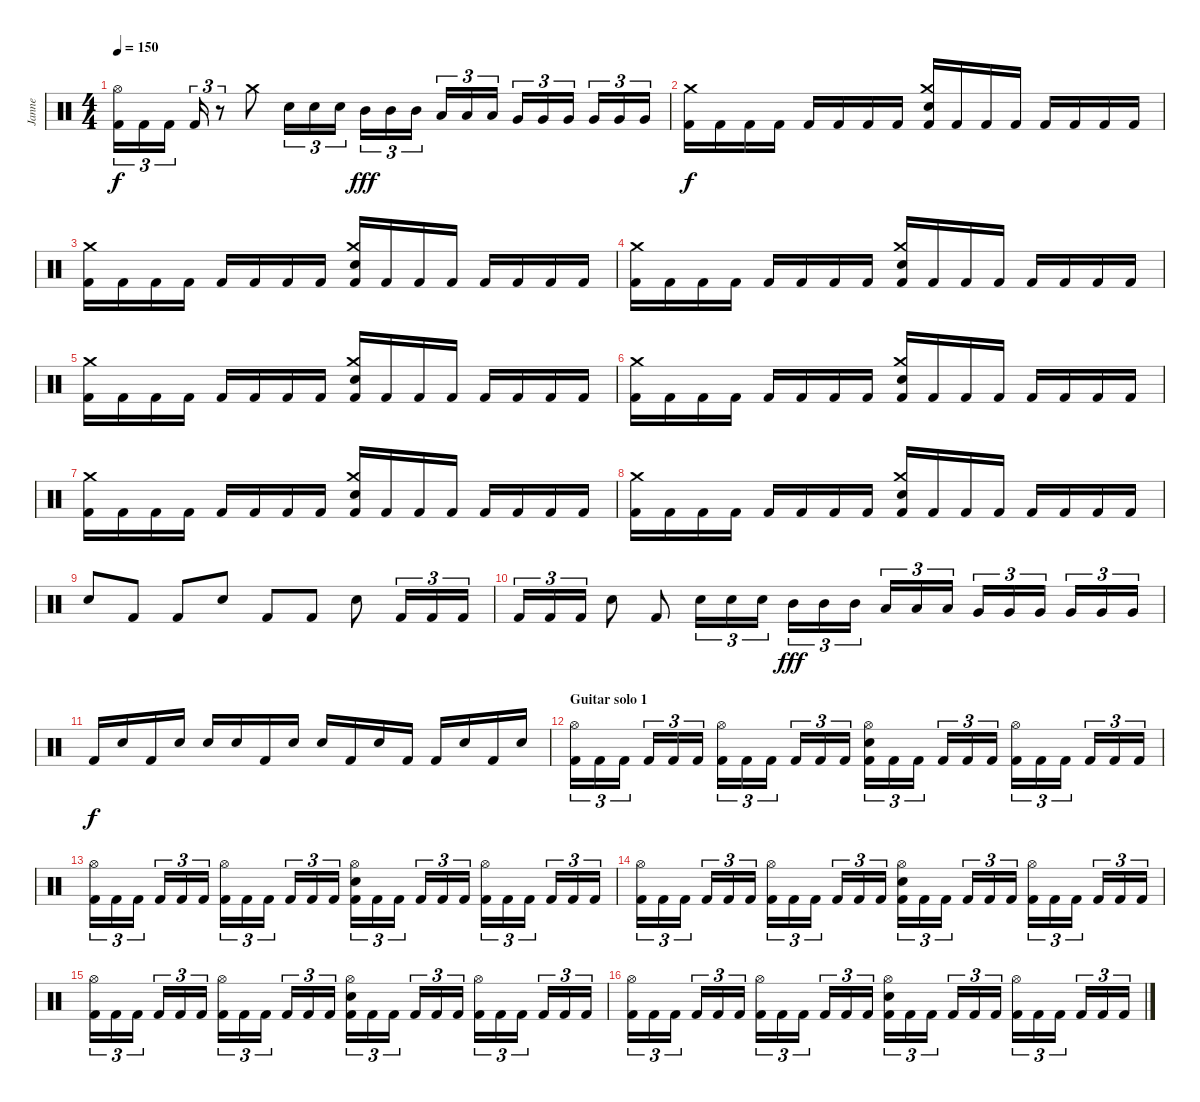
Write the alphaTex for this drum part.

\track ("Janne" "Janne") {instrument percussion}
\staff {score}
\articulation defaults
\ts (4 4)
\tempo 150
\clef neutral
\ks c
("Hi-Hat (open)" "Kick (hit) 2").16{tu (3 2) dy f} "Kick (hit) 2".16{tu (3 2)} "Kick (hit) 2".16{tu (3 2)} "Kick (hit) 2".16{tu (3 2)} r.8{tu (3 2)} "Crash medium (hit)".8 "Electric Snare (hit)".16{tu (3 2)} "Electric Snare (hit)".16{tu (3 2)} "Electric Snare (hit)".16{tu (3 2)} "Mid Tom (hit)".16{tu (3 2) dy fff} "Mid Tom (hit)".16{tu (3 2)} "Mid Tom (hit)".16{tu (3 2)} "Low Tom (hit)".16{tu (3 2)} "Low Tom (hit)".16{tu (3 2)} "Low Tom (hit)".16{tu (3 2)} "Very Low Tom (hit)".16{tu (3 2)} "Very Low Tom (hit)".16{tu (3 2)} "Very Low Tom (hit)".16{tu (3 2)} "Very Low Tom (hit)".16{tu (3 2)} "Very Low Tom (hit)".16{tu (3 2)} "Very Low Tom (hit)".16{tu (3 2)} |
("Crash medium (hit)" "Kick (hit) 2").16{dy f} "Kick (hit) 2".16 "Kick (hit) 2".16 "Kick (hit) 2".16 "Kick (hit) 2".16 "Kick (hit) 2".16 "Kick (hit) 2".16 "Kick (hit) 2".16 ("Crash medium (hit)" "Electric Snare (hit)" "Kick (hit) 2").16 "Kick (hit) 2".16 "Kick (hit) 2".16 "Kick (hit) 2".16 "Kick (hit) 2".16 "Kick (hit) 2".16 "Kick (hit) 2".16 "Kick (hit) 2".16 |
("Crash medium (hit)" "Kick (hit) 2").16 "Kick (hit) 2".16 "Kick (hit) 2".16 "Kick (hit) 2".16 "Kick (hit) 2".16 "Kick (hit) 2".16 "Kick (hit) 2".16 "Kick (hit) 2".16 ("Crash medium (hit)" "Electric Snare (hit)" "Kick (hit) 2").16 "Kick (hit) 2".16 "Kick (hit) 2".16 "Kick (hit) 2".16 "Kick (hit) 2".16 "Kick (hit) 2".16 "Kick (hit) 2".16 "Kick (hit) 2".16 |
("Crash medium (hit)" "Kick (hit) 2").16 "Kick (hit) 2".16 "Kick (hit) 2".16 "Kick (hit) 2".16 "Kick (hit) 2".16 "Kick (hit) 2".16 "Kick (hit) 2".16 "Kick (hit) 2".16 ("Crash medium (hit)" "Electric Snare (hit)" "Kick (hit) 2").16 "Kick (hit) 2".16 "Kick (hit) 2".16 "Kick (hit) 2".16 "Kick (hit) 2".16 "Kick (hit) 2".16 "Kick (hit) 2".16 "Kick (hit) 2".16 |
("Crash medium (hit)" "Kick (hit) 2").16 "Kick (hit) 2".16 "Kick (hit) 2".16 "Kick (hit) 2".16 "Kick (hit) 2".16 "Kick (hit) 2".16 "Kick (hit) 2".16 "Kick (hit) 2".16 ("Crash medium (hit)" "Electric Snare (hit)" "Kick (hit) 2").16 "Kick (hit) 2".16 "Kick (hit) 2".16 "Kick (hit) 2".16 "Kick (hit) 2".16 "Kick (hit) 2".16 "Kick (hit) 2".16 "Kick (hit) 2".16 |
("Crash medium (hit)" "Kick (hit) 2").16 "Kick (hit) 2".16 "Kick (hit) 2".16 "Kick (hit) 2".16 "Kick (hit) 2".16 "Kick (hit) 2".16 "Kick (hit) 2".16 "Kick (hit) 2".16 ("Crash medium (hit)" "Electric Snare (hit)" "Kick (hit) 2").16 "Kick (hit) 2".16 "Kick (hit) 2".16 "Kick (hit) 2".16 "Kick (hit) 2".16 "Kick (hit) 2".16 "Kick (hit) 2".16 "Kick (hit) 2".16 |
("Crash medium (hit)" "Kick (hit) 2").16 "Kick (hit) 2".16 "Kick (hit) 2".16 "Kick (hit) 2".16 "Kick (hit) 2".16 "Kick (hit) 2".16 "Kick (hit) 2".16 "Kick (hit) 2".16 ("Crash medium (hit)" "Electric Snare (hit)" "Kick (hit) 2").16 "Kick (hit) 2".16 "Kick (hit) 2".16 "Kick (hit) 2".16 "Kick (hit) 2".16 "Kick (hit) 2".16 "Kick (hit) 2".16 "Kick (hit) 2".16 |
("Crash medium (hit)" "Kick (hit) 2").16 "Kick (hit) 2".16 "Kick (hit) 2".16 "Kick (hit) 2".16 "Kick (hit) 2".16 "Kick (hit) 2".16 "Kick (hit) 2".16 "Kick (hit) 2".16 ("Crash medium (hit)" "Electric Snare (hit)" "Kick (hit) 2").16 "Kick (hit) 2".16 "Kick (hit) 2".16 "Kick (hit) 2".16 "Kick (hit) 2".16 "Kick (hit) 2".16 "Kick (hit) 2".16 "Kick (hit) 2".16 |
"Electric Snare (hit)".8 "Kick (hit) 2".8 "Kick (hit) 2".8 "Electric Snare (hit)".8 "Kick (hit) 2".8 "Kick (hit) 2".8 "Electric Snare (hit)".8 "Kick (hit) 2".16{tu (3 2)} "Kick (hit) 2".16{tu (3 2)} "Kick (hit) 2".16{tu (3 2)} |
"Kick (hit) 2".16{tu (3 2)} "Kick (hit) 2".16{tu (3 2)} "Kick (hit) 2".16{tu (3 2)} "Electric Snare (hit)".8 "Kick (hit) 2".8 "Electric Snare (hit)".16{tu (3 2)} "Electric Snare (hit)".16{tu (3 2)} "Electric Snare (hit)".16{tu (3 2)} "Mid Tom (hit)".16{tu (3 2) dy fff} "Mid Tom (hit)".16{tu (3 2)} "Mid Tom (hit)".16{tu (3 2)} "Low Tom (hit)".16{tu (3 2)} "Low Tom (hit)".16{tu (3 2)} "Low Tom (hit)".16{tu (3 2)} "Very Low Tom (hit)".16{tu (3 2)} "Very Low Tom (hit)".16{tu (3 2)} "Very Low Tom (hit)".16{tu (3 2)} "Very Low Tom (hit)".16{tu (3 2)} "Very Low Tom (hit)".16{tu (3 2)} "Very Low Tom (hit)".16{tu (3 2)} |
"Kick (hit) 2".16{dy f} "Electric Snare (hit)".16 "Kick (hit) 2".16 "Electric Snare (hit)".16 "Electric Snare (hit)".16 "Electric Snare (hit)".16 "Kick (hit) 2".16 "Electric Snare (hit)".16 "Electric Snare (hit)".16 "Kick (hit) 2".16 "Electric Snare (hit)".16 "Kick (hit) 2".16 "Kick (hit) 2".16 "Electric Snare (hit)".16 "Kick (hit) 2".16 "Electric Snare (hit)".16 |
\section ("" "Guitar solo 1")
("Hi-Hat (open)" "Kick (hit) 2").16{tu (3 2)} "Kick (hit) 2".16{tu (3 2)} "Kick (hit) 2".16{tu (3 2)} "Kick (hit) 2".16{tu (3 2)} "Kick (hit) 2".16{tu (3 2)} "Kick (hit) 2".16{tu (3 2)} ("Hi-Hat (open)" "Kick (hit) 2").16{tu (3 2)} "Kick (hit) 2".16{tu (3 2)} "Kick (hit) 2".16{tu (3 2)} "Kick (hit) 2".16{tu (3 2)} "Kick (hit) 2".16{tu (3 2)} "Kick (hit) 2".16{tu (3 2)} ("Hi-Hat (open)" "Electric Snare (hit)" "Kick (hit) 2").16{tu (3 2)} "Kick (hit) 2".16{tu (3 2)} "Kick (hit) 2".16{tu (3 2)} "Kick (hit) 2".16{tu (3 2)} "Kick (hit) 2".16{tu (3 2)} "Kick (hit) 2".16{tu (3 2)} ("Hi-Hat (open)" "Kick (hit) 2").16{tu (3 2)} "Kick (hit) 2".16{tu (3 2)} "Kick (hit) 2".16{tu (3 2)} "Kick (hit) 2".16{tu (3 2)} "Kick (hit) 2".16{tu (3 2)} "Kick (hit) 2".16{tu (3 2)} |
("Hi-Hat (open)" "Kick (hit) 2").16{tu (3 2)} "Kick (hit) 2".16{tu (3 2)} "Kick (hit) 2".16{tu (3 2)} "Kick (hit) 2".16{tu (3 2)} "Kick (hit) 2".16{tu (3 2)} "Kick (hit) 2".16{tu (3 2)} ("Hi-Hat (open)" "Kick (hit) 2").16{tu (3 2)} "Kick (hit) 2".16{tu (3 2)} "Kick (hit) 2".16{tu (3 2)} "Kick (hit) 2".16{tu (3 2)} "Kick (hit) 2".16{tu (3 2)} "Kick (hit) 2".16{tu (3 2)} ("Hi-Hat (open)" "Electric Snare (hit)" "Kick (hit) 2").16{tu (3 2)} "Kick (hit) 2".16{tu (3 2)} "Kick (hit) 2".16{tu (3 2)} "Kick (hit) 2".16{tu (3 2)} "Kick (hit) 2".16{tu (3 2)} "Kick (hit) 2".16{tu (3 2)} ("Hi-Hat (open)" "Kick (hit) 2").16{tu (3 2)} "Kick (hit) 2".16{tu (3 2)} "Kick (hit) 2".16{tu (3 2)} "Kick (hit) 2".16{tu (3 2)} "Kick (hit) 2".16{tu (3 2)} "Kick (hit) 2".16{tu (3 2)} |
("Hi-Hat (open)" "Kick (hit) 2").16{tu (3 2)} "Kick (hit) 2".16{tu (3 2)} "Kick (hit) 2".16{tu (3 2)} "Kick (hit) 2".16{tu (3 2)} "Kick (hit) 2".16{tu (3 2)} "Kick (hit) 2".16{tu (3 2)} ("Hi-Hat (open)" "Kick (hit) 2").16{tu (3 2)} "Kick (hit) 2".16{tu (3 2)} "Kick (hit) 2".16{tu (3 2)} "Kick (hit) 2".16{tu (3 2)} "Kick (hit) 2".16{tu (3 2)} "Kick (hit) 2".16{tu (3 2)} ("Hi-Hat (open)" "Electric Snare (hit)" "Kick (hit) 2").16{tu (3 2)} "Kick (hit) 2".16{tu (3 2)} "Kick (hit) 2".16{tu (3 2)} "Kick (hit) 2".16{tu (3 2)} "Kick (hit) 2".16{tu (3 2)} "Kick (hit) 2".16{tu (3 2)} ("Hi-Hat (open)" "Kick (hit) 2").16{tu (3 2)} "Kick (hit) 2".16{tu (3 2)} "Kick (hit) 2".16{tu (3 2)} "Kick (hit) 2".16{tu (3 2)} "Kick (hit) 2".16{tu (3 2)} "Kick (hit) 2".16{tu (3 2)} |
("Hi-Hat (open)" "Kick (hit) 2").16{tu (3 2)} "Kick (hit) 2".16{tu (3 2)} "Kick (hit) 2".16{tu (3 2)} "Kick (hit) 2".16{tu (3 2)} "Kick (hit) 2".16{tu (3 2)} "Kick (hit) 2".16{tu (3 2)} ("Hi-Hat (open)" "Kick (hit) 2").16{tu (3 2)} "Kick (hit) 2".16{tu (3 2)} "Kick (hit) 2".16{tu (3 2)} "Kick (hit) 2".16{tu (3 2)} "Kick (hit) 2".16{tu (3 2)} "Kick (hit) 2".16{tu (3 2)} ("Hi-Hat (open)" "Electric Snare (hit)" "Kick (hit) 2").16{tu (3 2)} "Kick (hit) 2".16{tu (3 2)} "Kick (hit) 2".16{tu (3 2)} "Kick (hit) 2".16{tu (3 2)} "Kick (hit) 2".16{tu (3 2)} "Kick (hit) 2".16{tu (3 2)} ("Hi-Hat (open)" "Kick (hit) 2").16{tu (3 2)} "Kick (hit) 2".16{tu (3 2)} "Kick (hit) 2".16{tu (3 2)} "Kick (hit) 2".16{tu (3 2)} "Kick (hit) 2".16{tu (3 2)} "Kick (hit) 2".16{tu (3 2)} |
("Hi-Hat (open)" "Kick (hit) 2").16{tu (3 2)} "Kick (hit) 2".16{tu (3 2)} "Kick (hit) 2".16{tu (3 2)} "Kick (hit) 2".16{tu (3 2)} "Kick (hit) 2".16{tu (3 2)} "Kick (hit) 2".16{tu (3 2)} ("Hi-Hat (open)" "Kick (hit) 2").16{tu (3 2)} "Kick (hit) 2".16{tu (3 2)} "Kick (hit) 2".16{tu (3 2)} "Kick (hit) 2".16{tu (3 2)} "Kick (hit) 2".16{tu (3 2)} "Kick (hit) 2".16{tu (3 2)} ("Hi-Hat (open)" "Electric Snare (hit)" "Kick (hit) 2").16{tu (3 2)} "Kick (hit) 2".16{tu (3 2)} "Kick (hit) 2".16{tu (3 2)} "Kick (hit) 2".16{tu (3 2)} "Kick (hit) 2".16{tu (3 2)} "Kick (hit) 2".16{tu (3 2)} ("Hi-Hat (open)" "Kick (hit) 2").16{tu (3 2)} "Kick (hit) 2".16{tu (3 2)} "Kick (hit) 2".16{tu (3 2)} "Kick (hit) 2".16{tu (3 2)} "Kick (hit) 2".16{tu (3 2)} "Kick (hit) 2".16{tu (3 2)}
